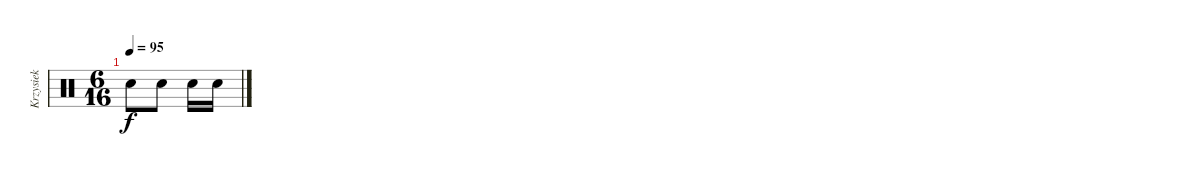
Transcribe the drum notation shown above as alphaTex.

\track ("Krzysiek" "Krzysiek") {instrument percussion}
\staff {score}
\articulation defaults
\ts (6 16)
\tempo 95
\clef neutral
\ks c "Electric Snare (hit)".8{dy f} "Electric Snare (hit)".8 "Electric Snare (hit)".16 "Electric Snare (hit)".16
